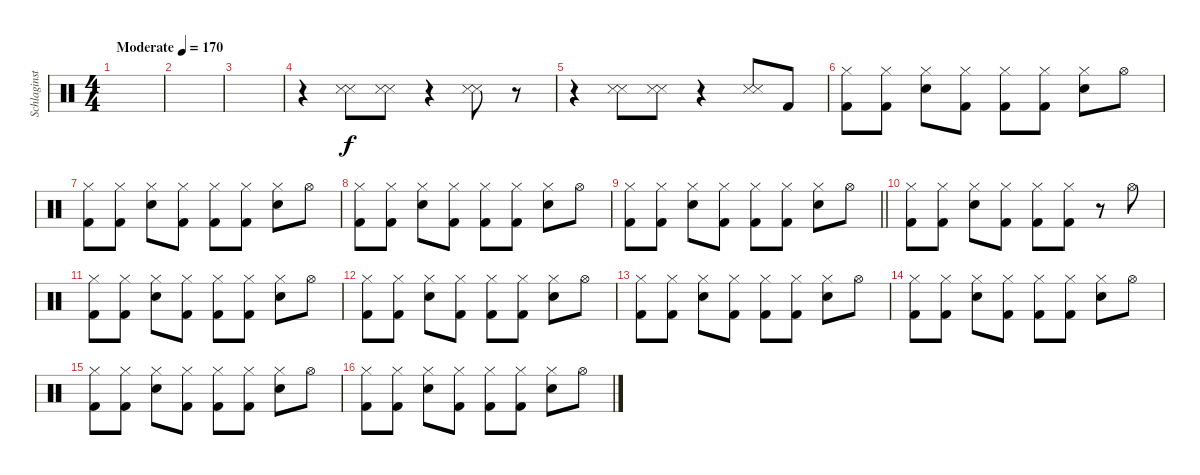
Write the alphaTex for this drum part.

\track ("Schlaginstrumente - Auswahl" "Schlaginst") {instrument percussion}
\staff {score}
\articulation defaults
\ts (4 4)
\tempo (170 "Moderate")
\clef neutral
\ks c
|
|
|
r.4 ("Snare (side stick) 3" "Snare (side stick) 3").8{bd 240} ("Snare (side stick) 3" "Snare (side stick) 3").8{bd 240} r.4 ("Snare (side stick) 3" "Snare (side stick) 3").8{bd 240} r.8 |
r.4 ("Snare (side stick) 3" "Snare (side stick) 3").8{bd 240} ("Snare (side stick) 3" "Snare (side stick) 3").8{bd 240} r.4 ("Snare (side stick) 3" "Snare (side stick) 3").8{bd 240} "Kick (hit) 2".8 |
("Hi-Hat (closed)" "Kick (hit) 2").8 ("Hi-Hat (closed)" "Kick (hit) 2").8 ("Hi-Hat (closed)" "Snare (hit) 2").8 ("Hi-Hat (closed)" "Kick (hit) 2").8 ("Hi-Hat (closed)" "Kick (hit) 2").8 ("Hi-Hat (closed)" "Kick (hit) 2").8 ("Hi-Hat (closed)" "Snare (hit) 2").8 "Hi-Hat (open)".8 |
("Hi-Hat (closed)" "Kick (hit) 2").8 ("Hi-Hat (closed)" "Kick (hit) 2").8 ("Hi-Hat (closed)" "Snare (hit) 2").8 ("Hi-Hat (closed)" "Kick (hit) 2").8 ("Hi-Hat (closed)" "Kick (hit) 2").8 ("Hi-Hat (closed)" "Kick (hit) 2").8 ("Hi-Hat (closed)" "Snare (hit) 2").8 "Hi-Hat (open)".8 |
("Hi-Hat (closed)" "Kick (hit) 2").8 ("Hi-Hat (closed)" "Kick (hit) 2").8 ("Hi-Hat (closed)" "Snare (hit) 2").8 ("Hi-Hat (closed)" "Kick (hit) 2").8 ("Hi-Hat (closed)" "Kick (hit) 2").8 ("Hi-Hat (closed)" "Kick (hit) 2").8 ("Hi-Hat (closed)" "Snare (hit) 2").8 "Hi-Hat (open)".8 |
\barLineRight lightlight
("Hi-Hat (closed)" "Kick (hit) 2").8 ("Hi-Hat (closed)" "Kick (hit) 2").8 ("Hi-Hat (closed)" "Snare (hit) 2").8 ("Hi-Hat (closed)" "Kick (hit) 2").8 ("Hi-Hat (closed)" "Kick (hit) 2").8 ("Hi-Hat (closed)" "Kick (hit) 2").8 ("Hi-Hat (closed)" "Snare (hit) 2").8 "Hi-Hat (open)".8 |
("Hi-Hat (closed)" "Kick (hit) 2").8 ("Hi-Hat (closed)" "Kick (hit) 2").8 ("Hi-Hat (closed)" "Snare (hit) 2").8 ("Hi-Hat (closed)" "Kick (hit) 2").8 ("Hi-Hat (closed)" "Kick (hit) 2").8 ("Hi-Hat (closed)" "Kick (hit) 2").8 r.8 "Hi-Hat (open)".8 |
("Hi-Hat (closed)" "Kick (hit) 2").8 ("Hi-Hat (closed)" "Kick (hit) 2").8 ("Hi-Hat (closed)" "Snare (hit) 2").8 ("Hi-Hat (closed)" "Kick (hit) 2").8 ("Hi-Hat (closed)" "Kick (hit) 2").8 ("Hi-Hat (closed)" "Kick (hit) 2").8 ("Hi-Hat (closed)" "Snare (hit) 2").8 "Hi-Hat (open)".8 |
("Hi-Hat (closed)" "Kick (hit) 2").8 ("Hi-Hat (closed)" "Kick (hit) 2").8 ("Hi-Hat (closed)" "Snare (hit) 2").8 ("Hi-Hat (closed)" "Kick (hit) 2").8 ("Hi-Hat (closed)" "Kick (hit) 2").8 ("Hi-Hat (closed)" "Kick (hit) 2").8 ("Hi-Hat (closed)" "Snare (hit) 2").8 "Hi-Hat (open)".8 |
("Hi-Hat (closed)" "Kick (hit) 2").8 ("Hi-Hat (closed)" "Kick (hit) 2").8 ("Hi-Hat (closed)" "Snare (hit) 2").8 ("Hi-Hat (closed)" "Kick (hit) 2").8 ("Hi-Hat (closed)" "Kick (hit) 2").8 ("Hi-Hat (closed)" "Kick (hit) 2").8 ("Hi-Hat (closed)" "Snare (hit) 2").8 "Hi-Hat (open)".8 |
("Hi-Hat (closed)" "Kick (hit) 2").8 ("Hi-Hat (closed)" "Kick (hit) 2").8 ("Hi-Hat (closed)" "Snare (hit) 2").8 ("Hi-Hat (closed)" "Kick (hit) 2").8 ("Hi-Hat (closed)" "Kick (hit) 2").8 ("Hi-Hat (closed)" "Kick (hit) 2").8 ("Hi-Hat (closed)" "Snare (hit) 2").8 "Hi-Hat (open)".8 |
("Hi-Hat (closed)" "Kick (hit) 2").8 ("Hi-Hat (closed)" "Kick (hit) 2").8 ("Hi-Hat (closed)" "Snare (hit) 2").8 ("Hi-Hat (closed)" "Kick (hit) 2").8 ("Hi-Hat (closed)" "Kick (hit) 2").8 ("Hi-Hat (closed)" "Kick (hit) 2").8 ("Hi-Hat (closed)" "Snare (hit) 2").8 "Hi-Hat (open)".8 |
("Hi-Hat (closed)" "Kick (hit) 2").8 ("Hi-Hat (closed)" "Kick (hit) 2").8 ("Hi-Hat (closed)" "Snare (hit) 2").8 ("Hi-Hat (closed)" "Kick (hit) 2").8 ("Hi-Hat (closed)" "Kick (hit) 2").8 ("Hi-Hat (closed)" "Kick (hit) 2").8 ("Hi-Hat (closed)" "Snare (hit) 2").8 "Hi-Hat (open)".8
